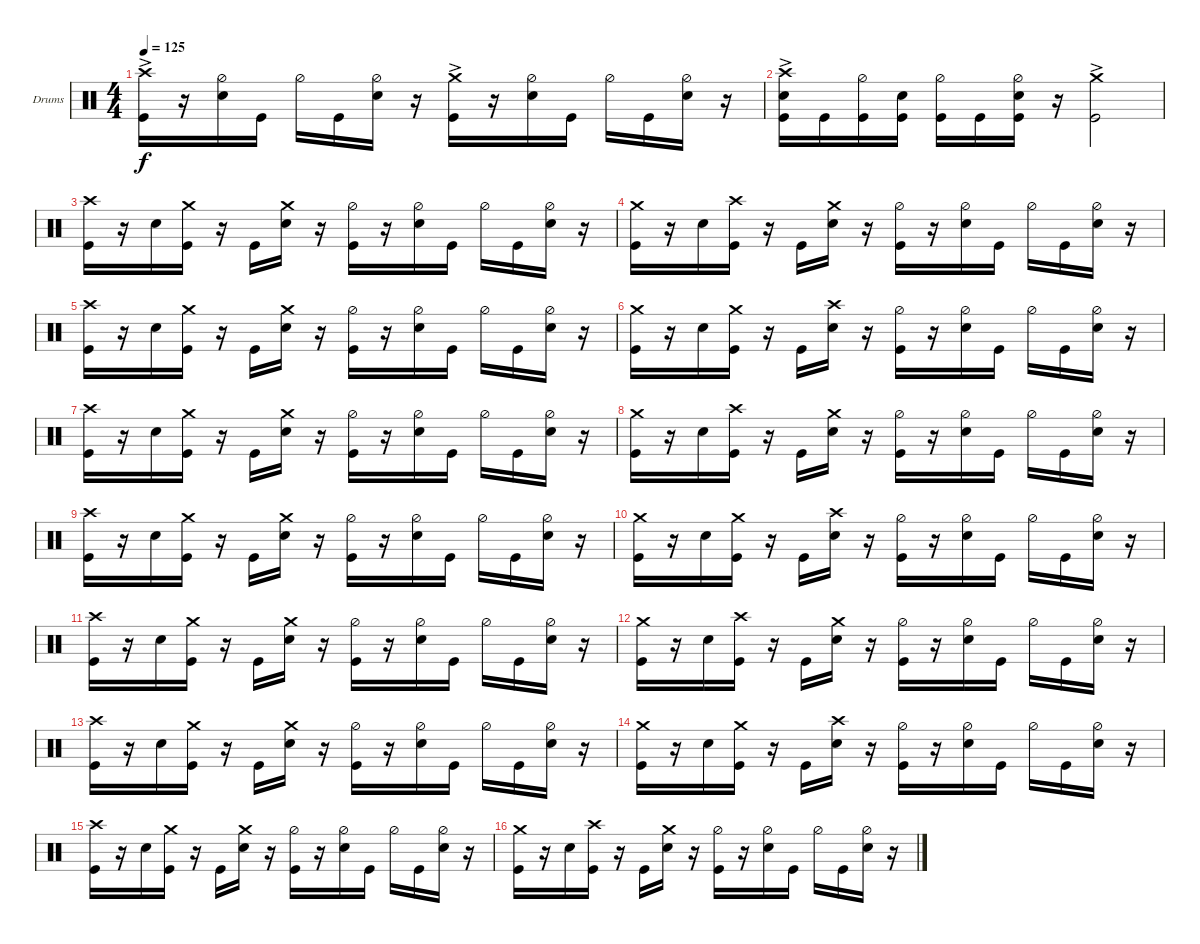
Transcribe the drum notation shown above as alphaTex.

\defaultSystemsLayout 4
\bracketExtendMode groupsimilarinstruments
\firstSystemTrackNameOrientation horizontal
\otherSystemsTrackNameOrientation horizontal
\track ("Lorenzo Milani" "Drums") {instrument percussion}
\staff {score}
\articulation defaults
\ts (4 4)
\tempo 125
\clef neutral
\ks c
("Kick (hit)"{ac} "Crash high (hit)"{ac}).16{dy f} r.16 ("Snare (hit) 2" "Hi-Hat (half)").16 "Kick (hit)".16 "Hi-Hat (half)".16 "Kick (hit)".16 ("Snare (hit) 2" "Hi-Hat (half)").16 r.16 ("Kick (hit)"{ac} "Crash medium (hit)"{ac}).16 r.16 ("Snare (hit) 2" "Hi-Hat (half)").16 "Kick (hit)".16 "Hi-Hat (half)".16 "Kick (hit)".16 ("Snare (hit) 2" "Hi-Hat (half)").16 r.16 |
("Crash high (hit)"{ac} "Snare (hit) 2" "Kick (hit)").16 "Kick (hit)".16 ("Kick (hit)" "Hi-Hat (half)").16 ("Snare (hit) 2" "Kick (hit)").16 ("Kick (hit)" "Hi-Hat (half)").16 "Kick (hit)".16 ("Snare (hit) 2" "Hi-Hat (half)" "Kick (hit)").16 r.16 ("Kick (hit)"{ac} "Crash medium (hit)"{ac}).2 |
("Kick (hit)" "Crash high (hit)").16 r.16 "Snare (hit) 2".16 ("Kick (hit)" "Crash medium (hit)").16 r.16 "Kick (hit)".16 ("Snare (hit) 2" "Crash medium (hit)").16 r.16 ("Kick (hit)" "Hi-Hat (half)").16 r.16 ("Snare (hit) 2" "Hi-Hat (half)").16 "Kick (hit)".16 "Hi-Hat (half)".16 "Kick (hit)".16 ("Snare (hit) 2" "Hi-Hat (half)").16 r.16 |
("Kick (hit)" "Crash medium (hit)").16 r.16 "Snare (hit) 2".16 ("Kick (hit)" "Crash high (hit)").16 r.16 "Kick (hit)".16 ("Snare (hit) 2" "Crash medium (hit)").16 r.16 ("Kick (hit)" "Hi-Hat (half)").16 r.16 ("Snare (hit) 2" "Hi-Hat (half)").16 "Kick (hit)".16 "Hi-Hat (half)".16 "Kick (hit)".16 ("Snare (hit) 2" "Hi-Hat (half)").16 r.16 |
("Kick (hit)" "Crash high (hit)").16 r.16 "Snare (hit) 2".16 ("Kick (hit)" "Crash medium (hit)").16 r.16 "Kick (hit)".16 ("Snare (hit) 2" "Crash medium (hit)").16 r.16 ("Kick (hit)" "Hi-Hat (half)").16 r.16 ("Snare (hit) 2" "Hi-Hat (half)").16 "Kick (hit)".16 "Hi-Hat (half)".16 "Kick (hit)".16 ("Snare (hit) 2" "Hi-Hat (half)").16 r.16 |
("Kick (hit)" "Crash medium (hit)").16 r.16 "Snare (hit) 2".16 ("Kick (hit)" "Crash medium (hit)").16 r.16 "Kick (hit)".16 ("Snare (hit) 2" "Crash high (hit)").16 r.16 ("Kick (hit)" "Hi-Hat (half)").16 r.16 ("Snare (hit) 2" "Hi-Hat (half)").16 "Kick (hit)".16 "Hi-Hat (half)".16 "Kick (hit)".16 ("Snare (hit) 2" "Hi-Hat (half)").16 r.16 |
("Kick (hit)" "Crash high (hit)").16 r.16 "Snare (hit) 2".16 ("Kick (hit)" "Crash medium (hit)").16 r.16 "Kick (hit)".16 ("Snare (hit) 2" "Crash medium (hit)").16 r.16 ("Kick (hit)" "Hi-Hat (half)").16 r.16 ("Snare (hit) 2" "Hi-Hat (half)").16 "Kick (hit)".16 "Hi-Hat (half)".16 "Kick (hit)".16 ("Snare (hit) 2" "Hi-Hat (half)").16 r.16 |
("Kick (hit)" "Crash medium (hit)").16 r.16 "Snare (hit) 2".16 ("Kick (hit)" "Crash high (hit)").16 r.16 "Kick (hit)".16 ("Snare (hit) 2" "Crash medium (hit)").16 r.16 ("Kick (hit)" "Hi-Hat (half)").16 r.16 ("Snare (hit) 2" "Hi-Hat (half)").16 "Kick (hit)".16 "Hi-Hat (half)".16 "Kick (hit)".16 ("Snare (hit) 2" "Hi-Hat (half)").16 r.16 |
("Kick (hit)" "Crash high (hit)").16 r.16 "Snare (hit) 2".16 ("Kick (hit)" "Crash medium (hit)").16 r.16 "Kick (hit)".16 ("Snare (hit) 2" "Crash medium (hit)").16 r.16 ("Kick (hit)" "Hi-Hat (half)").16 r.16 ("Snare (hit) 2" "Hi-Hat (half)").16 "Kick (hit)".16 "Hi-Hat (half)".16 "Kick (hit)".16 ("Snare (hit) 2" "Hi-Hat (half)").16 r.16 |
("Kick (hit)" "Crash medium (hit)").16 r.16 "Snare (hit) 2".16 ("Kick (hit)" "Crash medium (hit)").16 r.16 "Kick (hit)".16 ("Snare (hit) 2" "Crash high (hit)").16 r.16 ("Kick (hit)" "Hi-Hat (half)").16 r.16 ("Snare (hit) 2" "Hi-Hat (half)").16 "Kick (hit)".16 "Hi-Hat (half)".16 "Kick (hit)".16 ("Snare (hit) 2" "Hi-Hat (half)").16 r.16 |
("Kick (hit)" "Crash high (hit)").16 r.16 "Snare (hit) 2".16 ("Kick (hit)" "Crash medium (hit)").16 r.16 "Kick (hit)".16 ("Snare (hit) 2" "Crash medium (hit)").16 r.16 ("Kick (hit)" "Hi-Hat (half)").16 r.16 ("Snare (hit) 2" "Hi-Hat (half)").16 "Kick (hit)".16 "Hi-Hat (half)".16 "Kick (hit)".16 ("Snare (hit) 2" "Hi-Hat (half)").16 r.16 |
("Kick (hit)" "Crash medium (hit)").16 r.16 "Snare (hit) 2".16 ("Kick (hit)" "Crash high (hit)").16 r.16 "Kick (hit)".16 ("Snare (hit) 2" "Crash medium (hit)").16 r.16 ("Kick (hit)" "Hi-Hat (half)").16 r.16 ("Snare (hit) 2" "Hi-Hat (half)").16 "Kick (hit)".16 "Hi-Hat (half)".16 "Kick (hit)".16 ("Snare (hit) 2" "Hi-Hat (half)").16 r.16 |
("Kick (hit)" "Crash high (hit)").16 r.16 "Snare (hit) 2".16 ("Kick (hit)" "Crash medium (hit)").16 r.16 "Kick (hit)".16 ("Snare (hit) 2" "Crash medium (hit)").16 r.16 ("Kick (hit)" "Hi-Hat (half)").16 r.16 ("Snare (hit) 2" "Hi-Hat (half)").16 "Kick (hit)".16 "Hi-Hat (half)".16 "Kick (hit)".16 ("Snare (hit) 2" "Hi-Hat (half)").16 r.16 |
("Kick (hit)" "Crash medium (hit)").16 r.16 "Snare (hit) 2".16 ("Kick (hit)" "Crash medium (hit)").16 r.16 "Kick (hit)".16 ("Snare (hit) 2" "Crash high (hit)").16 r.16 ("Kick (hit)" "Hi-Hat (half)").16 r.16 ("Snare (hit) 2" "Hi-Hat (half)").16 "Kick (hit)".16 "Hi-Hat (half)".16 "Kick (hit)".16 ("Snare (hit) 2" "Hi-Hat (half)").16 r.16 |
("Kick (hit)" "Crash high (hit)").16 r.16 "Snare (hit) 2".16 ("Kick (hit)" "Crash medium (hit)").16 r.16 "Kick (hit)".16 ("Snare (hit) 2" "Crash medium (hit)").16 r.16 ("Kick (hit)" "Hi-Hat (half)").16 r.16 ("Snare (hit) 2" "Hi-Hat (half)").16 "Kick (hit)".16 "Hi-Hat (half)".16 "Kick (hit)".16 ("Snare (hit) 2" "Hi-Hat (half)").16 r.16 |
("Kick (hit)" "Crash medium (hit)").16 r.16 "Snare (hit) 2".16 ("Kick (hit)" "Crash high (hit)").16 r.16 "Kick (hit)".16 ("Snare (hit) 2" "Crash medium (hit)").16 r.16 ("Kick (hit)" "Hi-Hat (half)").16 r.16 ("Snare (hit) 2" "Hi-Hat (half)").16 "Kick (hit)".16 "Hi-Hat (half)".16 "Kick (hit)".16 ("Snare (hit) 2" "Hi-Hat (half)").16 r.16
